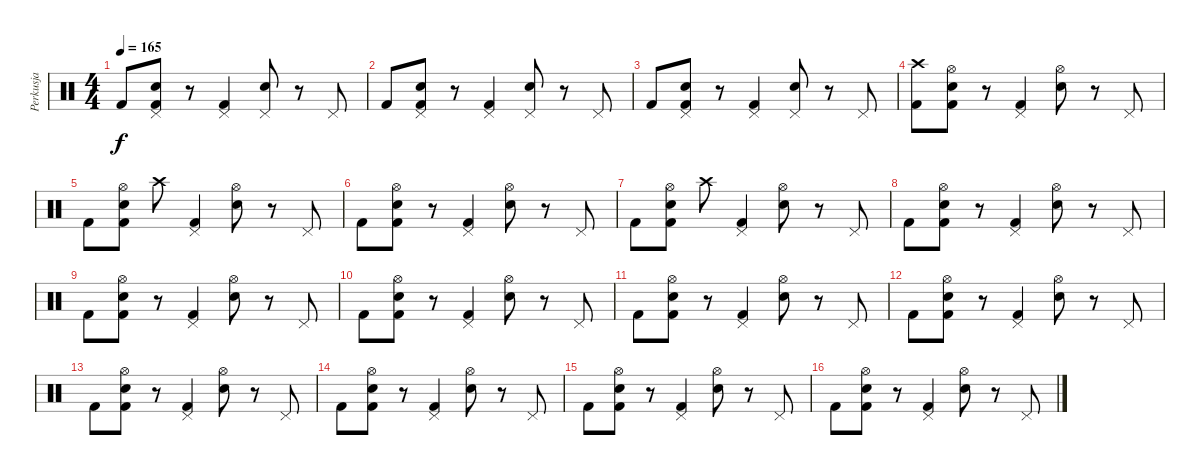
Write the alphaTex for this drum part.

\track ("Perkusja" "Perkusja") {instrument percussion}
\staff {score}
\articulation defaults
\ts (4 4)
\tempo 165
\clef neutral
\ks c "Kick (hit) 2".8{dy f}
("Pedal Hi-Hat (hit)" "Electric Snare (hit)" "Kick (hit) 2").8 r.8 ("Pedal Hi-Hat (hit)" "Kick (hit) 2").4 ("Pedal Hi-Hat (hit)" "Electric Snare (hit)").8 r.8 "Pedal Hi-Hat (hit)".8 |
"Kick (hit) 2".8 ("Pedal Hi-Hat (hit)" "Electric Snare (hit)" "Kick (hit) 2").8 r.8 ("Pedal Hi-Hat (hit)" "Kick (hit) 2").4 ("Pedal Hi-Hat (hit)" "Electric Snare (hit)").8 r.8 "Pedal Hi-Hat (hit)".8 |
"Kick (hit) 2".8 ("Pedal Hi-Hat (hit)" "Electric Snare (hit)" "Kick (hit) 2").8 r.8 ("Pedal Hi-Hat (hit)" "Kick (hit) 2").4 ("Pedal Hi-Hat (hit)" "Electric Snare (hit)").8 r.8 "Pedal Hi-Hat (hit)".8 |
("Crash high (hit)" "Kick (hit) 2").8 ("Hi-Hat (open)" "Electric Snare (hit)" "Kick (hit) 2").8 r.8 ("Pedal Hi-Hat (hit)" "Kick (hit) 2").4 ("Hi-Hat (open)" "Electric Snare (hit)").8 r.8 "Pedal Hi-Hat (hit)".8 |
"Kick (hit) 2".8 ("Hi-Hat (open)" "Electric Snare (hit)" "Kick (hit) 2").8 "Crash high (hit)".8 ("Pedal Hi-Hat (hit)" "Kick (hit) 2").4 ("Hi-Hat (open)" "Electric Snare (hit)").8 r.8 "Pedal Hi-Hat (hit)".8 |
"Kick (hit) 2".8 ("Hi-Hat (open)" "Electric Snare (hit)" "Kick (hit) 2").8 r.8 ("Pedal Hi-Hat (hit)" "Kick (hit) 2").4 ("Hi-Hat (open)" "Electric Snare (hit)").8 r.8 "Pedal Hi-Hat (hit)".8 |
"Kick (hit) 2".8 ("Hi-Hat (open)" "Electric Snare (hit)" "Kick (hit) 2").8 "Crash high (hit)".8 ("Pedal Hi-Hat (hit)" "Kick (hit) 2").4 ("Hi-Hat (open)" "Electric Snare (hit)").8 r.8 "Pedal Hi-Hat (hit)".8 |
"Kick (hit) 2".8 ("Hi-Hat (open)" "Electric Snare (hit)" "Kick (hit) 2").8 r.8 ("Pedal Hi-Hat (hit)" "Kick (hit) 2").4 ("Hi-Hat (open)" "Electric Snare (hit)").8 r.8 "Pedal Hi-Hat (hit)".8 |
"Kick (hit) 2".8 ("Hi-Hat (open)" "Electric Snare (hit)" "Kick (hit) 2").8 r.8 ("Pedal Hi-Hat (hit)" "Kick (hit) 2").4 ("Hi-Hat (open)" "Electric Snare (hit)").8 r.8 "Pedal Hi-Hat (hit)".8 |
"Kick (hit) 2".8 ("Hi-Hat (open)" "Electric Snare (hit)" "Kick (hit) 2").8 r.8 ("Pedal Hi-Hat (hit)" "Kick (hit) 2").4 ("Hi-Hat (open)" "Electric Snare (hit)").8 r.8 "Pedal Hi-Hat (hit)".8 |
"Kick (hit) 2".8 ("Hi-Hat (open)" "Electric Snare (hit)" "Kick (hit) 2").8 r.8 ("Pedal Hi-Hat (hit)" "Kick (hit) 2").4 ("Hi-Hat (open)" "Electric Snare (hit)").8 r.8 "Pedal Hi-Hat (hit)".8 |
"Kick (hit) 2".8 ("Hi-Hat (open)" "Electric Snare (hit)" "Kick (hit) 2").8 r.8 ("Pedal Hi-Hat (hit)" "Kick (hit) 2").4 ("Hi-Hat (open)" "Electric Snare (hit)").8 r.8 "Pedal Hi-Hat (hit)".8 |
"Kick (hit) 2".8 ("Hi-Hat (open)" "Electric Snare (hit)" "Kick (hit) 2").8 r.8 ("Pedal Hi-Hat (hit)" "Kick (hit) 2").4 ("Hi-Hat (open)" "Electric Snare (hit)").8 r.8 "Pedal Hi-Hat (hit)".8 |
"Kick (hit) 2".8 ("Hi-Hat (open)" "Electric Snare (hit)" "Kick (hit) 2").8 r.8 ("Pedal Hi-Hat (hit)" "Kick (hit) 2").4 ("Hi-Hat (open)" "Electric Snare (hit)").8 r.8 "Pedal Hi-Hat (hit)".8 |
"Kick (hit) 2".8 ("Hi-Hat (open)" "Electric Snare (hit)" "Kick (hit) 2").8 r.8 ("Pedal Hi-Hat (hit)" "Kick (hit) 2").4 ("Hi-Hat (open)" "Electric Snare (hit)").8 r.8 "Pedal Hi-Hat (hit)".8 |
"Kick (hit) 2".8 ("Hi-Hat (open)" "Electric Snare (hit)" "Kick (hit) 2").8 r.8 ("Pedal Hi-Hat (hit)" "Kick (hit) 2").4 ("Hi-Hat (open)" "Electric Snare (hit)").8 r.8 "Pedal Hi-Hat (hit)".8
